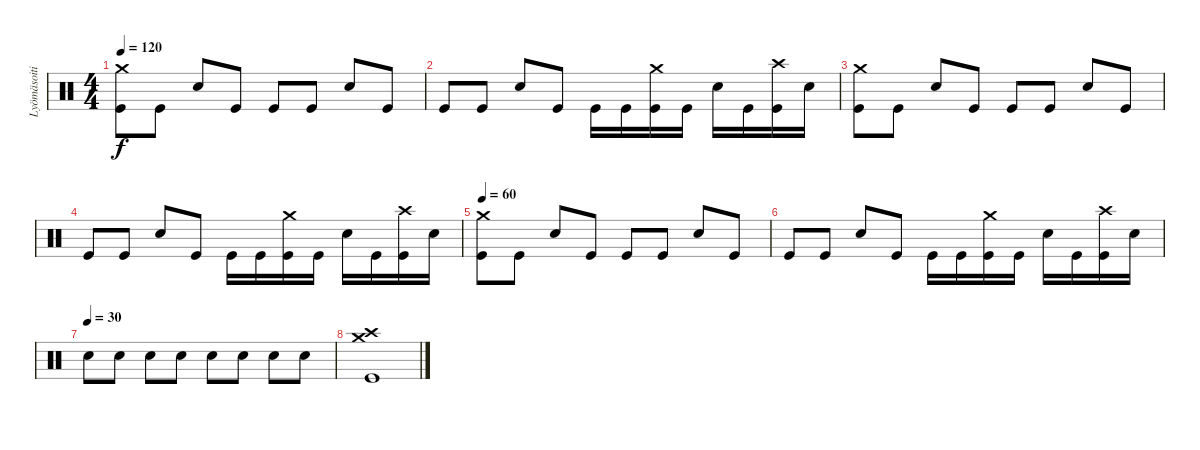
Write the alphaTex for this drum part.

\track ("Lyömäsoitin" "Lyömäsoiti") {instrument percussion}
\staff {score}
\articulation defaults
\ts (4 4)
\tempo 120
\clef neutral
\ks c
("Kick (hit)" "Crash medium (hit)").8{dy f} "Kick (hit)".8 "Electric Snare (hit)".8 "Kick (hit)".8 "Kick (hit)".8 "Kick (hit)".8 "Electric Snare (hit)".8 "Kick (hit)".8 |
"Kick (hit)".8 "Kick (hit)".8 "Electric Snare (hit)".8 "Kick (hit)".8 "Kick (hit)".16 "Kick (hit)".16 ("Kick (hit)" "Crash medium (hit)").16 "Kick (hit)".16 "Electric Snare (hit)".16 "Kick (hit)".16 ("Kick (hit)" "Crash high (hit)").16 "Electric Snare (hit)".16 |
("Kick (hit)" "Crash medium (hit)").8 "Kick (hit)".8 "Electric Snare (hit)".8 "Kick (hit)".8 "Kick (hit)".8 "Kick (hit)".8 "Electric Snare (hit)".8 "Kick (hit)".8 |
"Kick (hit)".8 "Kick (hit)".8 "Electric Snare (hit)".8 "Kick (hit)".8 "Kick (hit)".16 "Kick (hit)".16 ("Kick (hit)" "Crash medium (hit)").16 "Kick (hit)".16 "Electric Snare (hit)".16 "Kick (hit)".16 ("Kick (hit)" "Crash high (hit)").16 "Electric Snare (hit)".16 |
\tempo 60
("Kick (hit)" "Crash medium (hit)").8 "Kick (hit)".8 "Electric Snare (hit)".8 "Kick (hit)".8 "Kick (hit)".8 "Kick (hit)".8 "Electric Snare (hit)".8 "Kick (hit)".8 |
"Kick (hit)".8 "Kick (hit)".8 "Electric Snare (hit)".8 "Kick (hit)".8 "Kick (hit)".16 "Kick (hit)".16 ("Kick (hit)" "Crash medium (hit)").16 "Kick (hit)".16 "Electric Snare (hit)".16 "Kick (hit)".16 ("Kick (hit)" "Crash high (hit)").16 "Electric Snare (hit)".16 |
\tempo (30)
"Snare (hit) 2".8 "Snare (hit) 2".8 "Snare (hit) 2".8 "Snare (hit) 2".8 "Snare (hit) 2".8 "Snare (hit) 2".8 "Snare (hit) 2".8 "Snare (hit) 2".8 |
("Crash medium (hit)" "Crash high (hit)" "Kick (hit)").1
